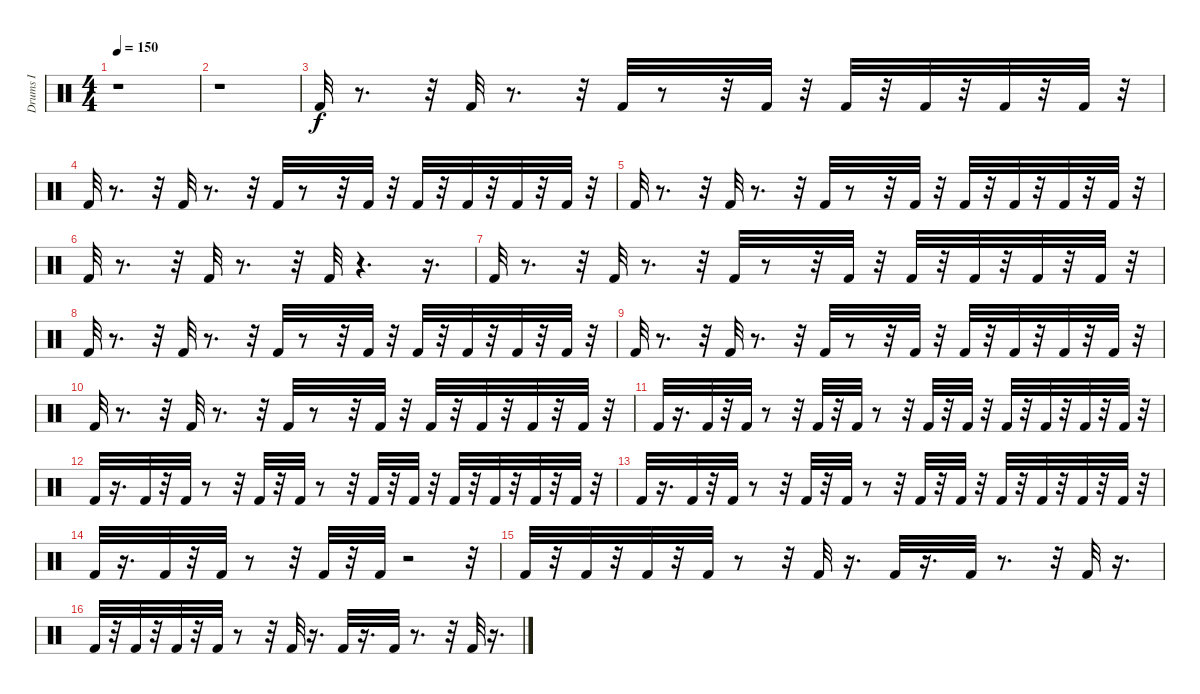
\track ("Drums I" "Drums I") {instrument percussion}
\staff {score}
\articulation defaults
\ts (4 4)
\tempo 150
\clef neutral
\ks c
r.1{dy f} |
r.1 |
"Kick (hit) 2".32{volume 15} r.8{d} r.32 "Kick (hit) 2".32 r.8{d} r.32 "Kick (hit) 2".32 r.8 r.32 "Kick (hit) 2".32 r.32 "Kick (hit) 2".32 r.32 "Kick (hit) 2".32 r.32 "Kick (hit) 2".32 r.32 "Kick (hit) 2".32 r.32 |
"Kick (hit) 2".32 r.8{d} r.32 "Kick (hit) 2".32 r.8{d} r.32 "Kick (hit) 2".32 r.8 r.32 "Kick (hit) 2".32 r.32 "Kick (hit) 2".32 r.32 "Kick (hit) 2".32 r.32 "Kick (hit) 2".32 r.32 "Kick (hit) 2".32 r.32 |
"Kick (hit) 2".32 r.8{d} r.32 "Kick (hit) 2".32 r.8{d} r.32 "Kick (hit) 2".32 r.8 r.32 "Kick (hit) 2".32 r.32 "Kick (hit) 2".32 r.32 "Kick (hit) 2".32 r.32 "Kick (hit) 2".32 r.32 "Kick (hit) 2".32 r.32 |
"Kick (hit) 2".32 r.8{d} r.32 "Kick (hit) 2".32 r.8{d} r.32 "Kick (hit) 2".32 r.4{d} r.16{d} |
"Kick (hit) 2".32 r.8{d} r.32 "Kick (hit) 2".32 r.8{d} r.32 "Kick (hit) 2".32 r.8 r.32 "Kick (hit) 2".32 r.32 "Kick (hit) 2".32 r.32 "Kick (hit) 2".32 r.32 "Kick (hit) 2".32 r.32 "Kick (hit) 2".32 r.32 |
"Kick (hit) 2".32 r.8{d} r.32 "Kick (hit) 2".32 r.8{d} r.32 "Kick (hit) 2".32 r.8 r.32 "Kick (hit) 2".32 r.32 "Kick (hit) 2".32 r.32 "Kick (hit) 2".32 r.32 "Kick (hit) 2".32 r.32 "Kick (hit) 2".32 r.32 |
"Kick (hit) 2".32 r.8{d} r.32 "Kick (hit) 2".32 r.8{d} r.32 "Kick (hit) 2".32 r.8 r.32 "Kick (hit) 2".32 r.32 "Kick (hit) 2".32 r.32 "Kick (hit) 2".32 r.32 "Kick (hit) 2".32 r.32 "Kick (hit) 2".32 r.32 |
"Kick (hit) 2".32 r.8{d} r.32 "Kick (hit) 2".32 r.8{d} r.32 "Kick (hit) 2".32 r.8 r.32 "Kick (hit) 2".32 r.32 "Kick (hit) 2".32 r.32 "Kick (hit) 2".32 r.32 "Kick (hit) 2".32 r.32 "Kick (hit) 2".32 r.32 |
"Kick (hit) 2".32 r.16{d} "Kick (hit) 2".32 r.32 "Kick (hit) 2".32 r.8 r.32 "Kick (hit) 2".32 r.32 "Kick (hit) 2".32 r.8 r.32 "Kick (hit) 2".32 r.32 "Kick (hit) 2".32 r.32 "Kick (hit) 2".32 r.32 "Kick (hit) 2".32 r.32 "Kick (hit) 2".32 r.32 "Kick (hit) 2".32 r.32 |
"Kick (hit) 2".32 r.16{d} "Kick (hit) 2".32 r.32 "Kick (hit) 2".32 r.8 r.32 "Kick (hit) 2".32 r.32 "Kick (hit) 2".32 r.8 r.32 "Kick (hit) 2".32 r.32 "Kick (hit) 2".32 r.32 "Kick (hit) 2".32 r.32 "Kick (hit) 2".32 r.32 "Kick (hit) 2".32 r.32 "Kick (hit) 2".32 r.32 |
"Kick (hit) 2".32 r.16{d} "Kick (hit) 2".32 r.32 "Kick (hit) 2".32 r.8 r.32 "Kick (hit) 2".32 r.32 "Kick (hit) 2".32 r.8 r.32 "Kick (hit) 2".32 r.32 "Kick (hit) 2".32 r.32 "Kick (hit) 2".32 r.32 "Kick (hit) 2".32 r.32 "Kick (hit) 2".32 r.32 "Kick (hit) 2".32 r.32 |
"Kick (hit) 2".32 r.16{d} "Kick (hit) 2".32 r.32 "Kick (hit) 2".32 r.8 r.32 "Kick (hit) 2".32 r.32 "Kick (hit) 2".32 r.2 r.32 |
"Kick (hit) 2".32 r.32 "Kick (hit) 2".32 r.32 "Kick (hit) 2".32 r.32 "Kick (hit) 2".32 r.8 r.32 "Kick (hit) 2".32 r.16{d} "Kick (hit) 2".32 r.16{d} "Kick (hit) 2".32 r.8{d} r.32 "Kick (hit) 2".32 r.16{d} |
"Kick (hit) 2".32 r.32 "Kick (hit) 2".32 r.32 "Kick (hit) 2".32 r.32 "Kick (hit) 2".32 r.8 r.32 "Kick (hit) 2".32 r.16{d} "Kick (hit) 2".32 r.16{d} "Kick (hit) 2".32 r.8{d} r.32 "Kick (hit) 2".32 r.16{d}
